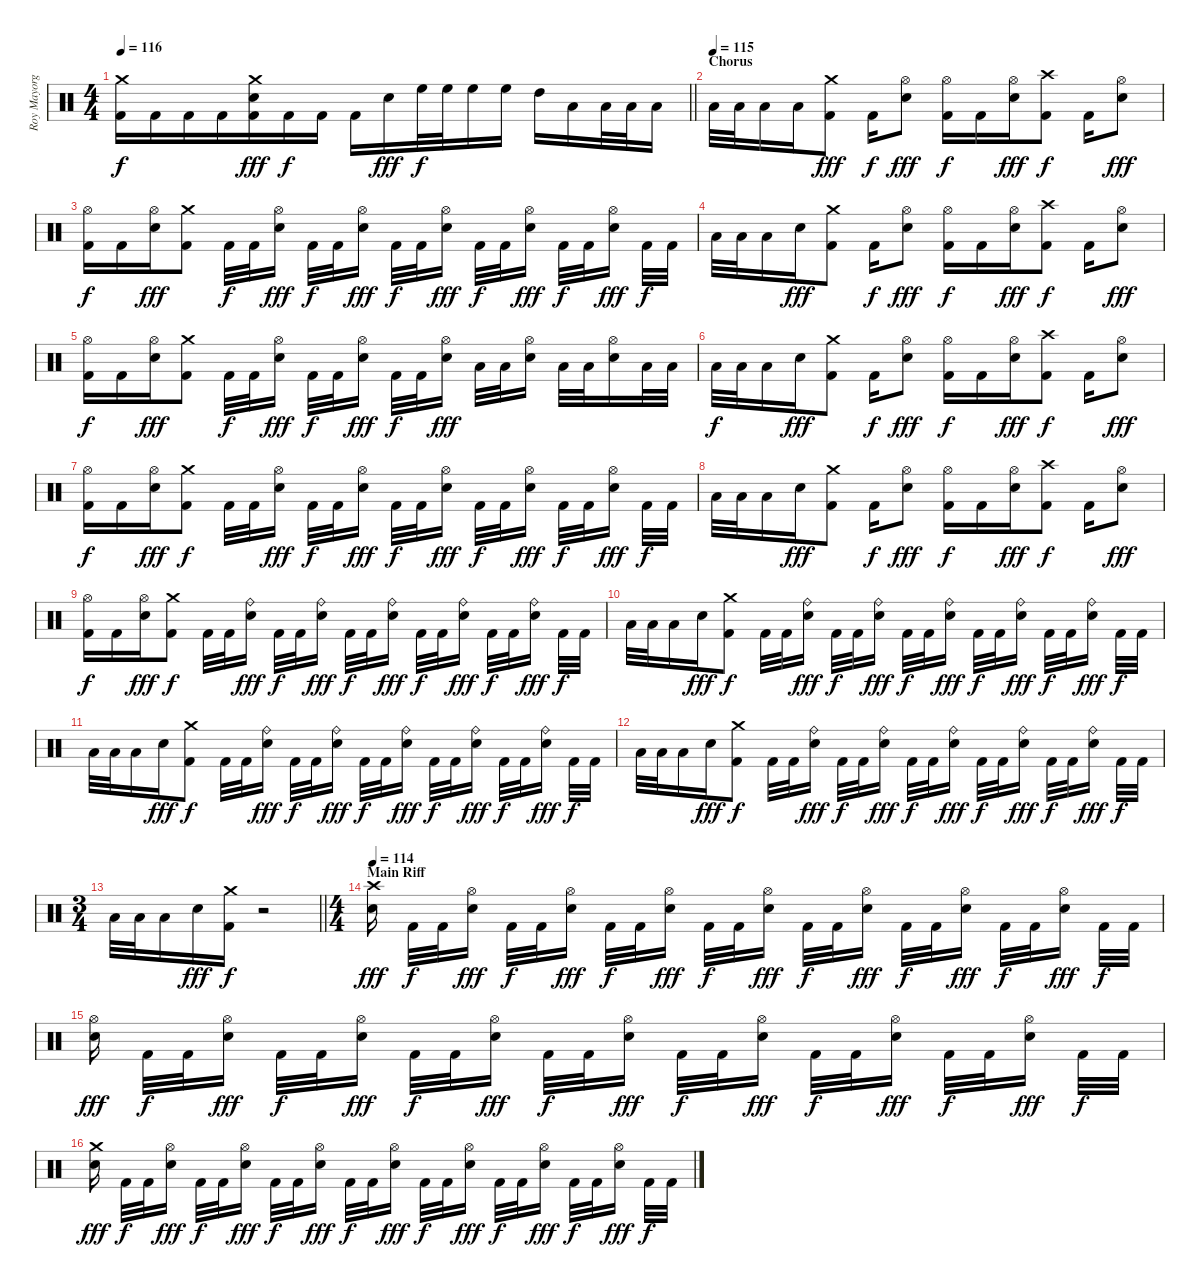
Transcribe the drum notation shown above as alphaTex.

\track ("Roy Mayorga" "Roy Mayorg") {instrument percussion}
\staff {score}
\articulation defaults
\ts (4 4)
\tempo 116
\clef neutral
\barLineRight lightlight
\ks c
("Crash medium (hit)" "Kick (hit) 2").16{dy f} "Kick (hit) 2".16 "Kick (hit) 2".16 "Kick (hit) 2".16{beam merge} ("Crash medium (hit)" "Electric Snare (hit)" "Kick (hit) 2").16{dy fff} "Kick (hit) 2".16{dy f} "Kick (hit) 2".16{beam split} "Kick (hit) 2".16{beam merge} "Electric Snare (hit)".16{dy fff} "High Floor Tom (hit)".32{dy f} "High Floor Tom (hit)".32 "High Floor Tom (hit)".16 "High Floor Tom (hit)".16 "High Tom (hit)".16 "Low Tom (hit)".16 "Low Floor Tom (hit)".32 "Low Floor Tom (hit)".32 "Low Floor Tom (hit)".16 |
\section ("" "Chorus")
\tempo (115)
"Low Tom (hit)".32 "Low Tom (hit)".32 "Low Tom (hit)".16 "Low Tom (hit)".16 ("Crash medium (hit)" "Kick (hit) 2").8{dy fff} "Kick (hit) 2".16{dy f} ("Hi-Hat (open)" "Electric Snare (hit)").8{dy fff} ("Hi-Hat (open)" "Kick (hit) 2").16{dy f} "Kick (hit) 2".16 ("Hi-Hat (open)" "Electric Snare (hit)").16{dy fff} ("Crash high (hit)" "Kick (hit) 2").8{dy f} "Kick (hit) 2".16 ("Hi-Hat (open)" "Electric Snare (hit)").8{dy fff} |
("Hi-Hat (open)" "Kick (hit) 2").16{dy f} "Kick (hit) 2".16 ("Hi-Hat (open)" "Electric Snare (hit)").16{dy fff} ("Crash medium (hit)" "Kick (hit) 2").8{beam split} "Kick (hit) 2".32{dy f} "Kick (hit) 2".32 ("Hi-Hat (open)" "Electric Snare (hit)").16{dy fff beam split} "Kick (hit) 2".32{dy f} "Kick (hit) 2".32{beam merge} ("Hi-Hat (open)" "Electric Snare (hit)").16{dy fff beam split} "Kick (hit) 2".32{dy f} "Kick (hit) 2".32 ("Hi-Hat (open)" "Electric Snare (hit)").16{dy fff beam split} "Kick (hit) 2".32{dy f} "Kick (hit) 2".32{beam merge} ("Hi-Hat (open)" "Electric Snare (hit)").16{dy fff beam split} "Kick (hit) 2".32{dy f} "Kick (hit) 2".32 ("Hi-Hat (open)" "Electric Snare (hit)").16{dy fff beam split} "Kick (hit) 2".32{dy f beam Down} "Kick (hit) 2".32{beam Down} |
"Low Tom (hit)".32 "Low Tom (hit)".32 "Low Tom (hit)".16 "Electric Snare (hit)".16{dy fff} ("Crash medium (hit)" "Kick (hit) 2").8 "Kick (hit) 2".16{dy f} ("Hi-Hat (open)" "Electric Snare (hit)").8{dy fff} ("Hi-Hat (open)" "Kick (hit) 2").16{dy f} "Kick (hit) 2".16 ("Hi-Hat (open)" "Electric Snare (hit)").16{dy fff} ("Crash high (hit)" "Kick (hit) 2").8{dy f} "Kick (hit) 2".16 ("Hi-Hat (open)" "Electric Snare (hit)").8{dy fff} |
("Hi-Hat (open)" "Kick (hit) 2").16{dy f} "Kick (hit) 2".16 ("Hi-Hat (open)" "Electric Snare (hit)").16{dy fff} ("Crash medium (hit)" "Kick (hit) 2").8 "Kick (hit) 2".32{dy f} "Kick (hit) 2".32 ("Hi-Hat (open)" "Electric Snare (hit)").16{dy fff beam split} "Kick (hit) 2".32{dy f} "Kick (hit) 2".32{beam merge} ("Hi-Hat (open)" "Electric Snare (hit)").16{dy fff beam split} "Kick (hit) 2".32{dy f} "Kick (hit) 2".32 ("Hi-Hat (open)" "Electric Snare (hit)").16{dy fff beam split} "Low Floor Tom (hit)".32 "Low Floor Tom (hit)".32{beam merge} ("Hi-Hat (open)" "Electric Snare (hit)").16{beam split} "Low Floor Tom (hit)".32 "Low Floor Tom (hit)".32 ("Hi-Hat (open)" "Electric Snare (hit)").16 "Low Floor Tom (hit)".32 "Low Floor Tom (hit)".32 |
"Low Tom (hit)".32{dy f} "Low Tom (hit)".32 "Low Tom (hit)".16 "Electric Snare (hit)".16{dy fff} ("Crash medium (hit)" "Kick (hit) 2").8 "Kick (hit) 2".16{dy f} ("Hi-Hat (open)" "Electric Snare (hit)").8{dy fff} ("Hi-Hat (open)" "Kick (hit) 2").16{dy f} "Kick (hit) 2".16 ("Hi-Hat (open)" "Electric Snare (hit)").16{dy fff} ("Crash high (hit)" "Kick (hit) 2").8{dy f} "Kick (hit) 2".16 ("Hi-Hat (open)" "Electric Snare (hit)").8{dy fff} |
("Hi-Hat (open)" "Kick (hit) 2").16{dy f} "Kick (hit) 2".16 ("Hi-Hat (open)" "Electric Snare (hit)").16{dy fff} ("Crash medium (hit)" "Kick (hit) 2").8{dy f beam split} "Kick (hit) 2".32 "Kick (hit) 2".32 ("Hi-Hat (open)" "Electric Snare (hit)").16{dy fff beam split} "Kick (hit) 2".32{dy f} "Kick (hit) 2".32{beam merge} ("Hi-Hat (open)" "Electric Snare (hit)").16{dy fff beam split} "Kick (hit) 2".32{dy f} "Kick (hit) 2".32 ("Hi-Hat (open)" "Electric Snare (hit)").16{dy fff beam split} "Kick (hit) 2".32{dy f} "Kick (hit) 2".32{beam merge} ("Hi-Hat (open)" "Electric Snare (hit)").16{dy fff beam split} "Kick (hit) 2".32{dy f} "Kick (hit) 2".32 ("Hi-Hat (open)" "Electric Snare (hit)").16{dy fff beam split} "Kick (hit) 2".32{dy f beam Down} "Kick (hit) 2".32{beam Down} |
"Low Tom (hit)".32 "Low Tom (hit)".32 "Low Tom (hit)".16 "Electric Snare (hit)".16{dy fff} ("Crash medium (hit)" "Kick (hit) 2").8 "Kick (hit) 2".16{dy f} ("Hi-Hat (open)" "Electric Snare (hit)").8{dy fff} ("Hi-Hat (open)" "Kick (hit) 2").16{dy f} "Kick (hit) 2".16 ("Hi-Hat (open)" "Electric Snare (hit)").16{dy fff} ("Crash high (hit)" "Kick (hit) 2").8{dy f} "Kick (hit) 2".16 ("Hi-Hat (open)" "Electric Snare (hit)").8{dy fff} |
("Hi-Hat (open)" "Kick (hit) 2").16{dy f} "Kick (hit) 2".16 ("Hi-Hat (open)" "Electric Snare (hit)").16{dy fff} ("Crash medium (hit)" "Kick (hit) 2").8{dy f} "Kick (hit) 2".32 "Kick (hit) 2".32 ("Ride (bell)" "Electric Snare (hit)").16{dy fff beam split} "Kick (hit) 2".32{dy f} "Kick (hit) 2".32{beam merge} ("Ride (bell)" "Electric Snare (hit)").16{dy fff beam split} "Kick (hit) 2".32{dy f} "Kick (hit) 2".32 ("Ride (bell)" "Electric Snare (hit)").16{dy fff beam split} "Kick (hit) 2".32{dy f} "Kick (hit) 2".32{beam merge} ("Ride (bell)" "Electric Snare (hit)").16{dy fff beam split} "Kick (hit) 2".32{dy f} "Kick (hit) 2".32 ("Ride (bell)" "Electric Snare (hit)").16{dy fff beam split} "Kick (hit) 2".32{dy f beam Down} "Kick (hit) 2".32{beam Down} |
"Low Tom (hit)".32 "Low Tom (hit)".32 "Low Tom (hit)".16 "Electric Snare (hit)".16{dy fff} ("Crash medium (hit)" "Kick (hit) 2").8{dy f} "Kick (hit) 2".32 "Kick (hit) 2".32 ("Ride (bell)" "Electric Snare (hit)").16{dy fff beam split} "Kick (hit) 2".32{dy f} "Kick (hit) 2".32{beam merge} ("Ride (bell)" "Electric Snare (hit)").16{dy fff beam split} "Kick (hit) 2".32{dy f} "Kick (hit) 2".32 ("Ride (bell)" "Electric Snare (hit)").16{dy fff beam split} "Kick (hit) 2".32{dy f} "Kick (hit) 2".32{beam merge} ("Ride (bell)" "Electric Snare (hit)").16{dy fff beam split} "Kick (hit) 2".32{dy f} "Kick (hit) 2".32 ("Ride (bell)" "Electric Snare (hit)").16{dy fff beam split} "Kick (hit) 2".32{dy f beam Down} "Kick (hit) 2".32{beam Down} |
"Low Tom (hit)".32 "Low Tom (hit)".32 "Low Tom (hit)".16 "Electric Snare (hit)".16{dy fff} ("Crash medium (hit)" "Kick (hit) 2").8{dy f} "Kick (hit) 2".32 "Kick (hit) 2".32 ("Ride (bell)" "Electric Snare (hit)").16{dy fff beam split} "Kick (hit) 2".32{dy f} "Kick (hit) 2".32{beam merge} ("Ride (bell)" "Electric Snare (hit)").16{dy fff beam split} "Kick (hit) 2".32{dy f} "Kick (hit) 2".32 ("Ride (bell)" "Electric Snare (hit)").16{dy fff beam split} "Kick (hit) 2".32{dy f} "Kick (hit) 2".32{beam merge} ("Ride (bell)" "Electric Snare (hit)").16{dy fff beam split} "Kick (hit) 2".32{dy f} "Kick (hit) 2".32 ("Ride (bell)" "Electric Snare (hit)").16{dy fff beam split} "Kick (hit) 2".32{dy f beam Down} "Kick (hit) 2".32{beam Down} |
"Low Tom (hit)".32 "Low Tom (hit)".32 "Low Tom (hit)".16 "Electric Snare (hit)".16{dy fff} ("Crash medium (hit)" "Kick (hit) 2").8{dy f} "Kick (hit) 2".32 "Kick (hit) 2".32 ("Ride (bell)" "Electric Snare (hit)").16{dy fff beam split} "Kick (hit) 2".32{dy f} "Kick (hit) 2".32{beam merge} ("Ride (bell)" "Electric Snare (hit)").16{dy fff beam split} "Kick (hit) 2".32{dy f} "Kick (hit) 2".32 ("Ride (bell)" "Electric Snare (hit)").16{dy fff beam split} "Kick (hit) 2".32{dy f} "Kick (hit) 2".32{beam merge} ("Ride (bell)" "Electric Snare (hit)").16{dy fff beam split} "Kick (hit) 2".32{dy f} "Kick (hit) 2".32 ("Ride (bell)" "Electric Snare (hit)").16{dy fff beam split} "Kick (hit) 2".32{dy f beam Down} "Kick (hit) 2".32{beam Down} |
\ts (3 4)
\barLineRight lightlight "Low Tom (hit)".32 "Low Tom (hit)".32 "Low Tom (hit)".16 "Electric Snare (hit)".16{dy fff}
("Crash medium (hit)" "Kick (hit) 2").16{dy f} r.2 |
\ts (4 4)
\section ("" "Main Riff")
\tempo 114
("Crash high (hit)" "Electric Snare (hit)").16{dy fff beam split} "Kick (hit) 2".32{dy f} "Kick (hit) 2".32 ("Hi-Hat (open)" "Electric Snare (hit)").16{dy fff beam split} "Kick (hit) 2".32{dy f} "Kick (hit) 2".32{beam merge} ("Hi-Hat (open)" "Electric Snare (hit)").16{dy fff beam split} "Kick (hit) 2".32{dy f} "Kick (hit) 2".32 ("Hi-Hat (open)" "Electric Snare (hit)").16{dy fff beam split} "Kick (hit) 2".32{dy f} "Kick (hit) 2".32{beam merge} ("Hi-Hat (open)" "Electric Snare (hit)").16{dy fff beam split} "Kick (hit) 2".32{dy f} "Kick (hit) 2".32 ("Hi-Hat (open)" "Electric Snare (hit)").16{dy fff beam split} "Kick (hit) 2".32{dy f} "Kick (hit) 2".32{beam merge} ("Hi-Hat (open)" "Electric Snare (hit)").16{dy fff beam split} "Kick (hit) 2".32{dy f} "Kick (hit) 2".32 ("Hi-Hat (open)" "Electric Snare (hit)").16{dy fff beam split} "Kick (hit) 2".32{dy f beam Down} "Kick (hit) 2".32{beam Down} |
("Hi-Hat (open)" "Electric Snare (hit)").16{dy fff beam split} "Kick (hit) 2".32{dy f} "Kick (hit) 2".32 ("Hi-Hat (open)" "Electric Snare (hit)").16{dy fff beam split} "Kick (hit) 2".32{dy f} "Kick (hit) 2".32{beam merge} ("Hi-Hat (open)" "Electric Snare (hit)").16{dy fff beam split} "Kick (hit) 2".32{dy f} "Kick (hit) 2".32 ("Hi-Hat (open)" "Electric Snare (hit)").16{dy fff beam split} "Kick (hit) 2".32{dy f} "Kick (hit) 2".32{beam merge} ("Hi-Hat (open)" "Electric Snare (hit)").16{dy fff beam split} "Kick (hit) 2".32{dy f} "Kick (hit) 2".32 ("Hi-Hat (open)" "Electric Snare (hit)").16{dy fff beam split} "Kick (hit) 2".32{dy f} "Kick (hit) 2".32{beam merge} ("Hi-Hat (open)" "Electric Snare (hit)").16{dy fff beam split} "Kick (hit) 2".32{dy f} "Kick (hit) 2".32 ("Hi-Hat (open)" "Electric Snare (hit)").16{dy fff beam split} "Kick (hit) 2".32{dy f beam Down} "Kick (hit) 2".32{beam Down} |
("Crash medium (hit)" "Electric Snare (hit)").16{dy fff beam split} "Kick (hit) 2".32{dy f} "Kick (hit) 2".32 ("Hi-Hat (open)" "Electric Snare (hit)").16{dy fff beam split} "Kick (hit) 2".32{dy f} "Kick (hit) 2".32{beam merge} ("Hi-Hat (open)" "Electric Snare (hit)").16{dy fff beam split} "Kick (hit) 2".32{dy f} "Kick (hit) 2".32 ("Hi-Hat (open)" "Electric Snare (hit)").16{dy fff beam split} "Kick (hit) 2".32{dy f} "Kick (hit) 2".32{beam merge} ("Hi-Hat (open)" "Electric Snare (hit)").16{dy fff beam split} "Kick (hit) 2".32{dy f} "Kick (hit) 2".32 ("Hi-Hat (open)" "Electric Snare (hit)").16{dy fff beam split} "Kick (hit) 2".32{dy f} "Kick (hit) 2".32{beam merge} ("Hi-Hat (open)" "Electric Snare (hit)").16{dy fff beam split} "Kick (hit) 2".32{dy f} "Kick (hit) 2".32 ("Hi-Hat (open)" "Electric Snare (hit)").16{dy fff beam split} "Kick (hit) 2".32{dy f beam Down} "Kick (hit) 2".32{beam Down}
